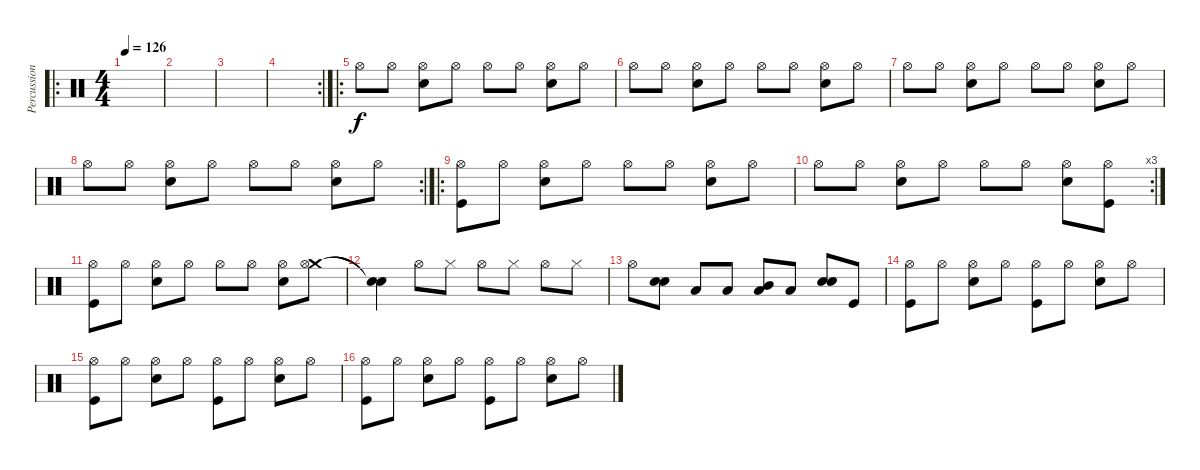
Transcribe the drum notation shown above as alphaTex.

\track ("Percussion" "Percussion") {instrument percussion}
\staff {score}
\articulation defaults
\ro
\ts (4 4)
\tempo 126
\clef neutral
\ks c
|
|
|
\rc 2
|
\ro "Hi-Hat (open)".8 "Hi-Hat (open)".8
("Snare (hit) 2" "Hi-Hat (open)").8 "Hi-Hat (open)".8 "Hi-Hat (open)".8 "Hi-Hat (open)".8 ("Snare (hit) 2" "Hi-Hat (open)").8 "Hi-Hat (open)".8 |
"Hi-Hat (open)".8 "Hi-Hat (open)".8 ("Snare (hit) 2" "Hi-Hat (open)").8 "Hi-Hat (open)".8 "Hi-Hat (open)".8 "Hi-Hat (open)".8 ("Snare (hit) 2" "Hi-Hat (open)").8 "Hi-Hat (open)".8 |
"Hi-Hat (open)".8 "Hi-Hat (open)".8 ("Snare (hit) 2" "Hi-Hat (open)").8 "Hi-Hat (open)".8 "Hi-Hat (open)".8 "Hi-Hat (open)".8 ("Snare (hit) 2" "Hi-Hat (open)").8 "Hi-Hat (open)".8 |
\rc 2 "Hi-Hat (open)".8 "Hi-Hat (open)".8
("Snare (hit) 2" "Hi-Hat (open)").8 "Hi-Hat (open)".8 "Hi-Hat (open)".8 "Hi-Hat (open)".8 ("Snare (hit) 2" "Hi-Hat (open)").8 "Hi-Hat (open)".8 |
\ro
("Kick (hit)" "Hi-Hat (open)").8 "Hi-Hat (open)".8 ("Snare (hit) 2" "Hi-Hat (open)").8 "Hi-Hat (open)".8 "Hi-Hat (open)".8 "Hi-Hat (open)".8 ("Snare (hit) 2" "Hi-Hat (open)").8 "Hi-Hat (open)".8 |
\rc 3 "Hi-Hat (open)".8 "Hi-Hat (open)".8
("Snare (hit) 2" "Hi-Hat (open)").8 "Hi-Hat (open)".8 "Hi-Hat (open)".8 "Hi-Hat (open)".8 ("Snare (hit) 2" "Hi-Hat (open)").8 ("Kick (hit)" "Hi-Hat (open)").8 |
("Kick (hit)" "Hi-Hat (open)").8 "Hi-Hat (open)".8 ("Snare (hit) 2" "Hi-Hat (open)").8 "Hi-Hat (open)".8 "Hi-Hat (open)".8 "Hi-Hat (open)".8 ("Snare (hit) 2" "Hi-Hat (open)").8 ("Crash medium (hit)" "Hi-Hat (open)").8 |
("Snare (hit)"{t} "Snare (hit)"{t}).4 "Hi-Hat (open)".8 "Hi-Hat (closed)".8 "Hi-Hat (open)".8 "Hi-Hat (closed)".8 "Hi-Hat (open)".8 "Hi-Hat (closed)".8 |
"Hi-Hat (open)".8 ("Snare (hit) 2" "Snare (hit) 2").8 "Low Tom (hit)".8 "Low Tom (hit)".8 ("Low Tom (hit)" "Mid Tom (hit)").8 "Low Tom (hit)".8 ("Snare (hit) 2" "Snare (hit) 2").8 "Kick (hit)".8 |
("Kick (hit)" "Hi-Hat (open)").8 "Hi-Hat (open)".8 ("Snare (hit) 2" "Hi-Hat (open)").8 "Hi-Hat (open)".8 ("Kick (hit)" "Hi-Hat (open)").8 "Hi-Hat (open)".8 ("Snare (hit) 2" "Hi-Hat (open)").8 "Hi-Hat (open)".8 |
("Kick (hit)" "Hi-Hat (open)").8 "Hi-Hat (open)".8 ("Snare (hit) 2" "Hi-Hat (open)").8 "Hi-Hat (open)".8 ("Kick (hit)" "Hi-Hat (open)").8 "Hi-Hat (open)".8 ("Snare (hit) 2" "Hi-Hat (open)").8 "Hi-Hat (open)".8 |
("Kick (hit)" "Hi-Hat (open)").8 "Hi-Hat (open)".8 ("Snare (hit) 2" "Hi-Hat (open)").8 "Hi-Hat (open)".8 ("Kick (hit)" "Hi-Hat (open)").8 "Hi-Hat (open)".8 ("Snare (hit) 2" "Hi-Hat (open)").8 "Hi-Hat (open)".8
